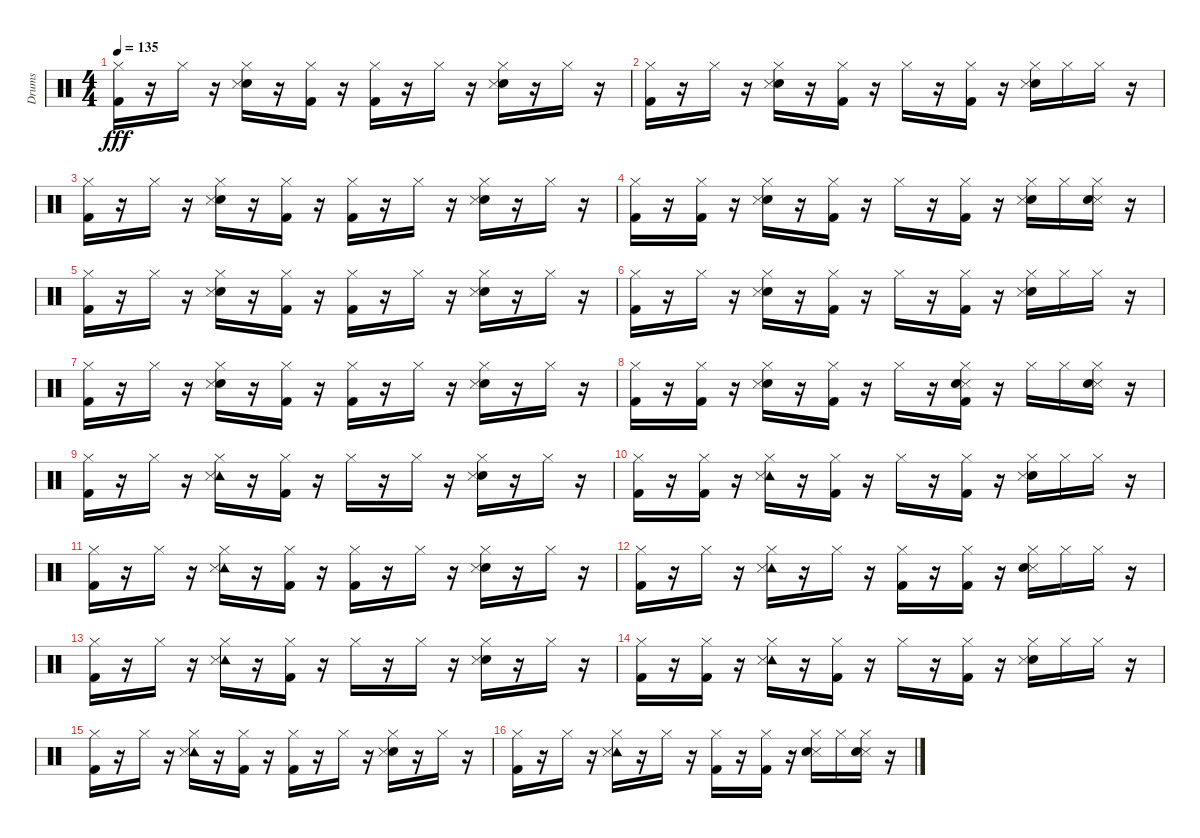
\track ("Drums" "Drums") {instrument percussion}
\staff {score}
\articulation defaults
\ts (4 4)
\tempo 135
\clef neutral
\ks c
("Kick (hit) 2" "Hi-Hat (closed)").16{dy fff} r.16 "Hi-Hat (closed)".16 r.16 ("Electric Snare (hit)" "Snare (side stick) 3" "Hi-Hat (closed)").16 r.16 ("Kick (hit) 2" "Hi-Hat (closed)").16 r.16 ("Kick (hit) 2" "Hi-Hat (closed)").16 r.16 "Hi-Hat (closed)".16 r.16 ("Electric Snare (hit)" "Snare (side stick) 3" "Hi-Hat (closed)").16 r.16 "Hi-Hat (closed)".16 r.16 |
("Kick (hit) 2" "Hi-Hat (closed)").16 r.16 "Hi-Hat (closed)".16 r.16 ("Electric Snare (hit)" "Snare (side stick) 3" "Hi-Hat (closed)").16 r.16 ("Kick (hit) 2" "Hi-Hat (closed)").16 r.16 "Hi-Hat (closed)".16 r.16 ("Kick (hit) 2" "Hi-Hat (closed)").16 r.16 ("Electric Snare (hit)" "Snare (side stick) 3" "Hi-Hat (closed)").16 "Hi-Hat (closed)".16 "Hi-Hat (closed)".16 r.16 |
("Kick (hit) 2" "Hi-Hat (closed)").16 r.16 "Hi-Hat (closed)".16 r.16 ("Electric Snare (hit)" "Snare (side stick) 3" "Hi-Hat (closed)").16 r.16 ("Kick (hit) 2" "Hi-Hat (closed)").16 r.16 ("Kick (hit) 2" "Hi-Hat (closed)").16 r.16 "Hi-Hat (closed)".16 r.16 ("Electric Snare (hit)" "Snare (side stick) 3" "Hi-Hat (closed)").16 r.16 "Hi-Hat (closed)".16 r.16 |
("Hi-Hat (closed)" "Kick (hit) 2").16 r.16 ("Kick (hit) 2" "Hi-Hat (closed)").16 r.16 ("Electric Snare (hit)" "Hi-Hat (closed)" "Snare (side stick) 3").16 r.16 ("Hi-Hat (closed)" "Kick (hit) 2").16 r.16 "Hi-Hat (closed)".16 r.16 ("Hi-Hat (closed)" "Kick (hit) 2").16 r.16 ("Electric Snare (hit)" "Hi-Hat (closed)" "Snare (side stick) 3").16 "Hi-Hat (closed)".16 ("Snare (side stick) 3" "Electric Snare (hit)" "Hi-Hat (closed)").16 r.16 |
("Kick (hit) 2" "Hi-Hat (closed)").16 r.16 "Hi-Hat (closed)".16 r.16 ("Electric Snare (hit)" "Snare (side stick) 3" "Hi-Hat (closed)").16 r.16 ("Kick (hit) 2" "Hi-Hat (closed)").16 r.16 ("Kick (hit) 2" "Hi-Hat (closed)").16 r.16 "Hi-Hat (closed)".16 r.16 ("Electric Snare (hit)" "Snare (side stick) 3" "Hi-Hat (closed)").16 r.16 "Hi-Hat (closed)".16 r.16 |
("Kick (hit) 2" "Hi-Hat (closed)").16 r.16 "Hi-Hat (closed)".16 r.16 ("Electric Snare (hit)" "Snare (side stick) 3" "Hi-Hat (closed)").16 r.16 ("Kick (hit) 2" "Hi-Hat (closed)").16 r.16 "Hi-Hat (closed)".16 r.16 ("Kick (hit) 2" "Hi-Hat (closed)").16 r.16 ("Electric Snare (hit)" "Snare (side stick) 3" "Hi-Hat (closed)").16 "Hi-Hat (closed)".16 "Hi-Hat (closed)".16 r.16 |
("Kick (hit) 2" "Hi-Hat (closed)").16 r.16 "Hi-Hat (closed)".16 r.16 ("Electric Snare (hit)" "Snare (side stick) 3" "Hi-Hat (closed)").16 r.16 ("Kick (hit) 2" "Hi-Hat (closed)").16 r.16 ("Kick (hit) 2" "Hi-Hat (closed)").16 r.16 "Hi-Hat (closed)".16 r.16 ("Electric Snare (hit)" "Snare (side stick) 3" "Hi-Hat (closed)").16 r.16 "Hi-Hat (closed)".16 r.16 |
("Hi-Hat (closed)" "Kick (hit) 2").16 r.16 ("Kick (hit) 2" "Hi-Hat (closed)").16 r.16 ("Electric Snare (hit)" "Hi-Hat (closed)" "Snare (side stick) 3").16 r.16 ("Hi-Hat (closed)" "Kick (hit) 2").16 r.16 "Hi-Hat (closed)".16 r.16 ("Snare (side stick) 3" "Electric Snare (hit)" "Hi-Hat (closed)" "Kick (hit) 2").16 r.16 "Hi-Hat (closed)".16 "Hi-Hat (closed)".16 ("Snare (side stick) 3" "Electric Snare (hit)" "Hi-Hat (closed)").16 r.16 |
("Kick (hit) 2" "Hi-Hat (closed)").16 r.16 "Hi-Hat (closed)".16 r.16 ("Tambourine (hit)" "Snare (side stick) 3" "Hi-Hat (closed)").16 r.16 ("Kick (hit) 2" "Hi-Hat (closed)").16 r.16 "Hi-Hat (closed)".16 r.16 "Hi-Hat (closed)".16 r.16 ("Electric Snare (hit)" "Snare (side stick) 3" "Hi-Hat (closed)").16 r.16 "Hi-Hat (closed)".16 r.16 |
("Kick (hit) 2" "Hi-Hat (closed)").16 r.16 ("Kick (hit) 2" "Hi-Hat (closed)").16 r.16 ("Tambourine (hit)" "Snare (side stick) 3" "Hi-Hat (closed)").16 r.16 ("Kick (hit) 2" "Hi-Hat (closed)").16 r.16 "Hi-Hat (closed)".16 r.16 ("Kick (hit) 2" "Hi-Hat (closed)").16 r.16 ("Electric Snare (hit)" "Snare (side stick) 3" "Hi-Hat (closed)").16 "Hi-Hat (closed)".16 "Hi-Hat (closed)".16 r.16 |
("Kick (hit) 2" "Hi-Hat (closed)").16 r.16 "Hi-Hat (closed)".16 r.16 ("Tambourine (hit)" "Snare (side stick) 3" "Hi-Hat (closed)").16 r.16 ("Kick (hit) 2" "Hi-Hat (closed)").16 r.16 ("Kick (hit) 2" "Hi-Hat (closed)").16 r.16 "Hi-Hat (closed)".16 r.16 ("Electric Snare (hit)" "Snare (side stick) 3" "Hi-Hat (closed)").16 r.16 "Hi-Hat (closed)".16 r.16 |
("Kick (hit) 2" "Hi-Hat (closed)").16 r.16 "Hi-Hat (closed)".16 r.16 ("Tambourine (hit)" "Snare (side stick) 3" "Hi-Hat (closed)").16 r.16 "Hi-Hat (closed)".16 r.16 ("Kick (hit) 2" "Hi-Hat (closed)").16 r.16 ("Kick (hit) 2" "Hi-Hat (closed)").16 r.16 ("Snare (side stick) 3" "Electric Snare (hit)" "Hi-Hat (closed)").16 "Hi-Hat (closed)".16 "Hi-Hat (closed)".16 r.16 |
("Kick (hit) 2" "Hi-Hat (closed)").16 r.16 "Hi-Hat (closed)".16 r.16 ("Tambourine (hit)" "Snare (side stick) 3" "Hi-Hat (closed)").16 r.16 ("Kick (hit) 2" "Hi-Hat (closed)").16 r.16 "Hi-Hat (closed)".16 r.16 "Hi-Hat (closed)".16 r.16 ("Electric Snare (hit)" "Snare (side stick) 3" "Hi-Hat (closed)").16 r.16 "Hi-Hat (closed)".16 r.16 |
("Kick (hit) 2" "Hi-Hat (closed)").16 r.16 ("Kick (hit) 2" "Hi-Hat (closed)").16 r.16 ("Tambourine (hit)" "Snare (side stick) 3" "Hi-Hat (closed)").16 r.16 ("Kick (hit) 2" "Hi-Hat (closed)").16 r.16 "Hi-Hat (closed)".16 r.16 ("Kick (hit) 2" "Hi-Hat (closed)").16 r.16 ("Electric Snare (hit)" "Snare (side stick) 3" "Hi-Hat (closed)").16 "Hi-Hat (closed)".16 "Hi-Hat (closed)".16 r.16 |
("Kick (hit) 2" "Hi-Hat (closed)").16 r.16 "Hi-Hat (closed)".16 r.16 ("Tambourine (hit)" "Snare (side stick) 3" "Hi-Hat (closed)").16 r.16 ("Kick (hit) 2" "Hi-Hat (closed)").16 r.16 ("Kick (hit) 2" "Hi-Hat (closed)").16 r.16 "Hi-Hat (closed)".16 r.16 ("Electric Snare (hit)" "Snare (side stick) 3" "Hi-Hat (closed)").16 r.16 "Hi-Hat (closed)".16 r.16 |
("Kick (hit) 2" "Hi-Hat (closed)").16 r.16 "Hi-Hat (closed)".16 r.16 ("Tambourine (hit)" "Snare (side stick) 3" "Hi-Hat (closed)").16 r.16 "Hi-Hat (closed)".16 r.16 ("Kick (hit) 2" "Hi-Hat (closed)").16 r.16 ("Kick (hit) 2" "Hi-Hat (closed)").16 r.16 ("Snare (side stick) 3" "Electric Snare (hit)" "Hi-Hat (closed)").16 "Hi-Hat (closed)".16 ("Snare (side stick) 3" "Electric Snare (hit)" "Hi-Hat (closed)").16 r.16
